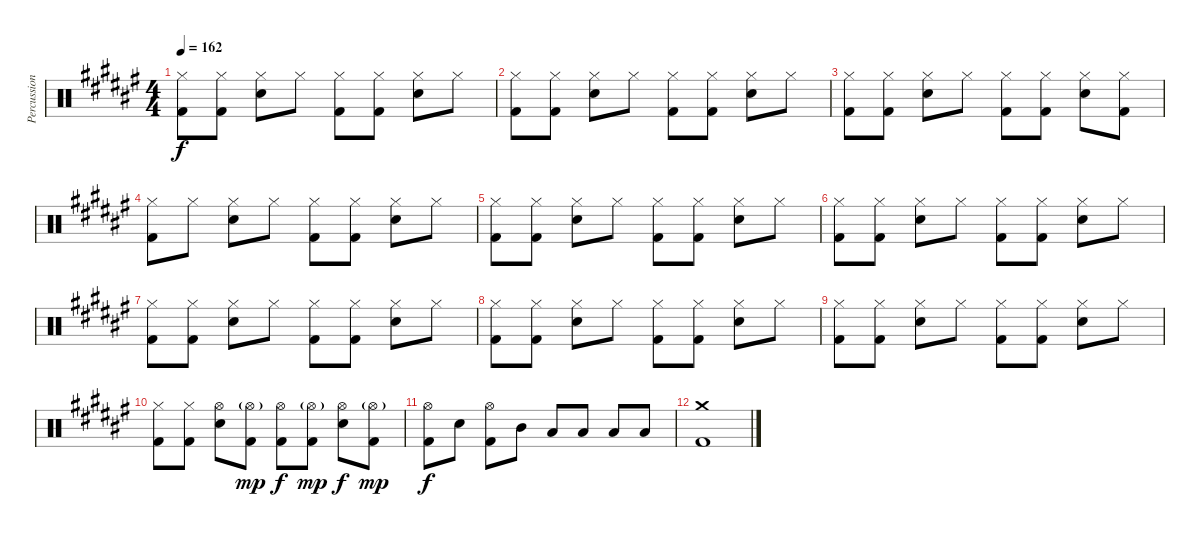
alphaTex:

\track ("Percussion" "Percussion") {instrument percussion}
\staff {score}
\articulation defaults
\ts (4 4)
\tempo 162
\clef neutral
\ks f#
("Hi-Hat (closed)" "Kick (hit) 2").8{dy f} ("Hi-Hat (closed)" "Kick (hit) 2").8 ("Hi-Hat (closed)" "Electric Snare (hit)").8 "Hi-Hat (closed)".8 ("Hi-Hat (closed)" "Kick (hit) 2").8 ("Hi-Hat (closed)" "Kick (hit) 2").8 ("Hi-Hat (closed)" "Electric Snare (hit)").8 "Hi-Hat (closed)".8 |
("Hi-Hat (closed)" "Kick (hit) 2").8 ("Hi-Hat (closed)" "Kick (hit) 2").8 ("Hi-Hat (closed)" "Electric Snare (hit)").8 "Hi-Hat (closed)".8 ("Hi-Hat (closed)" "Kick (hit) 2").8 ("Hi-Hat (closed)" "Kick (hit) 2").8 ("Hi-Hat (closed)" "Electric Snare (hit)").8 "Hi-Hat (closed)".8 |
("Hi-Hat (closed)" "Kick (hit) 2").8 ("Hi-Hat (closed)" "Kick (hit) 2").8 ("Hi-Hat (closed)" "Electric Snare (hit)").8 "Hi-Hat (closed)".8 ("Hi-Hat (closed)" "Kick (hit) 2").8 ("Hi-Hat (closed)" "Kick (hit) 2").8 ("Hi-Hat (closed)" "Electric Snare (hit)").8 ("Hi-Hat (closed)" "Kick (hit) 2").8 |
("Hi-Hat (closed)" "Kick (hit) 2").8 "Hi-Hat (closed)".8 ("Hi-Hat (closed)" "Electric Snare (hit)").8 "Hi-Hat (closed)".8 ("Hi-Hat (closed)" "Kick (hit) 2").8 ("Hi-Hat (closed)" "Kick (hit) 2").8 ("Hi-Hat (closed)" "Electric Snare (hit)").8 "Hi-Hat (closed)".8 |
("Hi-Hat (closed)" "Kick (hit) 2").8 ("Hi-Hat (closed)" "Kick (hit) 2").8 ("Hi-Hat (closed)" "Electric Snare (hit)").8 "Hi-Hat (closed)".8 ("Hi-Hat (closed)" "Kick (hit) 2").8 ("Hi-Hat (closed)" "Kick (hit) 2").8 ("Hi-Hat (closed)" "Electric Snare (hit)").8 "Hi-Hat (closed)".8 |
("Hi-Hat (closed)" "Kick (hit) 2").8 ("Hi-Hat (closed)" "Kick (hit) 2").8 ("Hi-Hat (closed)" "Electric Snare (hit)").8 "Hi-Hat (closed)".8 ("Hi-Hat (closed)" "Kick (hit) 2").8 ("Hi-Hat (closed)" "Kick (hit) 2").8 ("Hi-Hat (closed)" "Electric Snare (hit)").8 "Hi-Hat (closed)".8 |
("Hi-Hat (closed)" "Kick (hit) 2").8 ("Hi-Hat (closed)" "Kick (hit) 2").8 ("Hi-Hat (closed)" "Electric Snare (hit)").8 "Hi-Hat (closed)".8 ("Hi-Hat (closed)" "Kick (hit) 2").8 ("Hi-Hat (closed)" "Kick (hit) 2").8 ("Hi-Hat (closed)" "Electric Snare (hit)").8 "Hi-Hat (closed)".8 |
("Hi-Hat (closed)" "Kick (hit) 2").8 ("Hi-Hat (closed)" "Kick (hit) 2").8 ("Hi-Hat (closed)" "Electric Snare (hit)").8 "Hi-Hat (closed)".8 ("Hi-Hat (closed)" "Kick (hit) 2").8 ("Hi-Hat (closed)" "Kick (hit) 2").8 ("Hi-Hat (closed)" "Electric Snare (hit)").8 "Hi-Hat (closed)".8 |
("Hi-Hat (closed)" "Kick (hit) 2").8 ("Hi-Hat (closed)" "Kick (hit) 2").8 ("Hi-Hat (closed)" "Electric Snare (hit)").8 "Hi-Hat (closed)".8 ("Hi-Hat (closed)" "Kick (hit) 2").8 ("Hi-Hat (closed)" "Kick (hit) 2").8 ("Hi-Hat (closed)" "Electric Snare (hit)").8 "Hi-Hat (closed)".8 |
("Hi-Hat (closed)" "Kick (hit) 2").8 ("Hi-Hat (closed)" "Kick (hit) 2").8 ("Hi-Hat (open)" "Electric Snare (hit)").8 ("Hi-Hat (open)"{g} "Kick (hit) 2").8{dy mp} ("Hi-Hat (open)" "Kick (hit) 2").8{dy f} ("Hi-Hat (open)"{g} "Kick (hit) 2").8{dy mp} ("Hi-Hat (open)" "Electric Snare (hit)").8{dy f} ("Hi-Hat (open)"{g} "Kick (hit) 2").8{dy mp} |
("Hi-Hat (open)" "Kick (hit) 2").8{dy f} "Electric Snare (hit)".8 ("Hi-Hat (open)" "Kick (hit) 2").8 "Mid Tom (hit)".8 "Low Tom (hit)".8 "Low Tom (hit)".8 "Low Floor Tom (hit)".8 "Low Floor Tom (hit)".8 |
("Crash medium (hit)" "Kick (hit) 2").1
